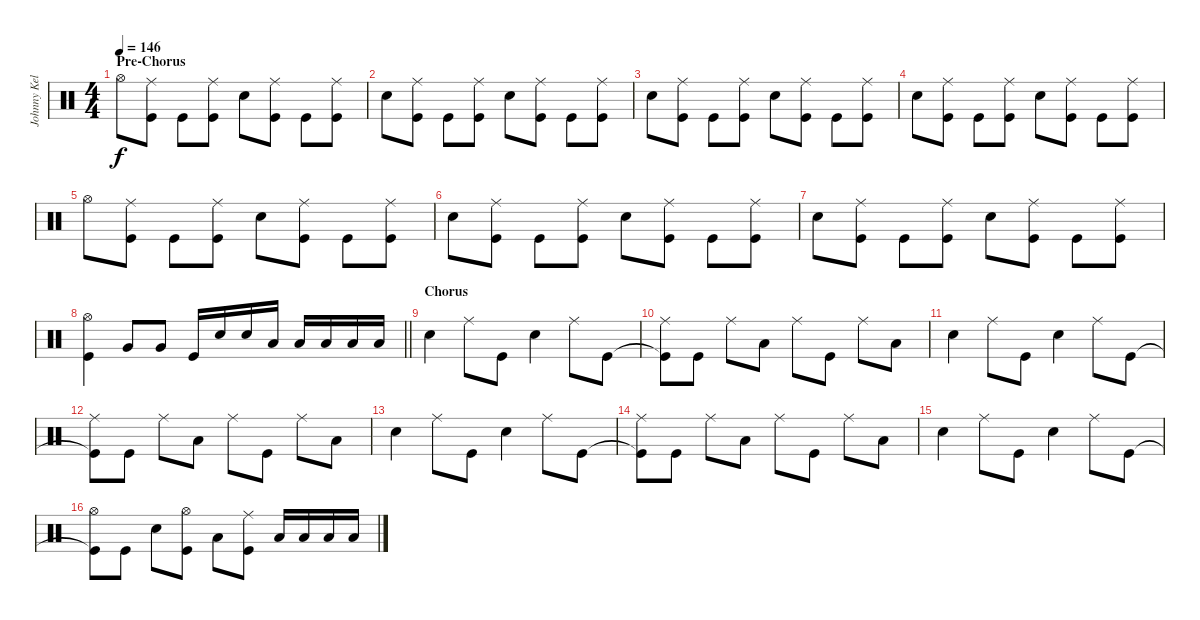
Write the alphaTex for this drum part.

\track ("Johnny Kelly" "Johnny Kel") {instrument percussion}
\staff {score}
\articulation defaults
\ts (4 4)
\section ("" "Pre-Chorus")
\tempo 146
\clef neutral
\ks c "Hi-Hat (open)".8{dy f}
("Kick (hit)" "Ride (middle)").8 "Kick (hit)".8 ("Kick (hit)" "Ride (middle)").8 "Snare (hit) 2".8 ("Kick (hit)" "Ride (middle)").8 "Kick (hit)".8 ("Kick (hit)" "Ride (middle)").8 |
"Snare (hit) 2".8 ("Kick (hit)" "Ride (middle)").8 "Kick (hit)".8 ("Kick (hit)" "Ride (middle)").8 "Snare (hit) 2".8 ("Kick (hit)" "Ride (middle)").8 "Kick (hit)".8 ("Kick (hit)" "Ride (middle)").8 |
"Snare (hit) 2".8 ("Kick (hit)" "Ride (middle)").8 "Kick (hit)".8 ("Kick (hit)" "Ride (middle)").8 "Snare (hit) 2".8 ("Kick (hit)" "Ride (middle)").8 "Kick (hit)".8 ("Kick (hit)" "Ride (middle)").8 |
"Snare (hit) 2".8 ("Kick (hit)" "Ride (middle)").8 "Kick (hit)".8 ("Kick (hit)" "Ride (middle)").8 "Snare (hit) 2".8 ("Kick (hit)" "Ride (middle)").8 "Kick (hit)".8 ("Kick (hit)" "Ride (middle)").8 |
"Hi-Hat (open)".8 ("Kick (hit)" "Ride (middle)").8 "Kick (hit)".8 ("Kick (hit)" "Ride (middle)").8 "Snare (hit) 2".8 ("Kick (hit)" "Ride (middle)").8 "Kick (hit)".8 ("Kick (hit)" "Ride (middle)").8 |
"Snare (hit) 2".8 ("Kick (hit)" "Ride (middle)").8 "Kick (hit)".8 ("Kick (hit)" "Ride (middle)").8 "Snare (hit) 2".8 ("Kick (hit)" "Ride (middle)").8 "Kick (hit)".8 ("Kick (hit)" "Ride (middle)").8 |
"Snare (hit) 2".8 ("Kick (hit)" "Ride (middle)").8 "Kick (hit)".8 ("Kick (hit)" "Ride (middle)").8 "Snare (hit) 2".8 ("Kick (hit)" "Ride (middle)").8 "Kick (hit)".8 ("Kick (hit)" "Ride (middle)").8 |
\barLineRight lightlight
("Kick (hit)" "Hi-Hat (open)").4 "Very Low Tom (hit)".8 "Very Low Tom (hit)".8 "Kick (hit)".16 "Snare (hit) 2".16 "Snare (hit) 2".16 "Low Tom (hit)".16 "Low Tom (hit)".16 "Low Tom (hit)".16 "Low Tom (hit)".16 "Low Tom (hit)".16 |
\section ("" "Chorus")
"Snare (hit) 2".4 "Ride (middle)".8 "Kick (hit)".8 "Snare (hit) 2".4 "Ride (middle)".8 "Kick (hit)".8 |
("Kick (hit)"{t} "Ride (middle)").8 "Kick (hit)".8 "Ride (middle)".8 "Low Tom (hit)".8 "Ride (middle)".8 "Kick (hit)".8 "Ride (middle)".8 "Low Tom (hit)".8 |
"Snare (hit) 2".4 "Ride (middle)".8 "Kick (hit)".8 "Snare (hit) 2".4 "Ride (middle)".8 "Kick (hit)".8 |
("Kick (hit)"{t} "Ride (middle)").8 "Kick (hit)".8 "Ride (middle)".8 "Low Tom (hit)".8 "Ride (middle)".8 "Kick (hit)".8 "Ride (middle)".8 "Low Tom (hit)".8 |
"Snare (hit) 2".4 "Ride (middle)".8 "Kick (hit)".8 "Snare (hit) 2".4 "Ride (middle)".8 "Kick (hit)".8 |
("Kick (hit)"{t} "Ride (middle)").8 "Kick (hit)".8 "Ride (middle)".8 "Low Tom (hit)".8 "Ride (middle)".8 "Kick (hit)".8 "Ride (middle)".8 "Low Tom (hit)".8 |
"Snare (hit) 2".4 "Ride (middle)".8 "Kick (hit)".8 "Snare (hit) 2".4 "Ride (middle)".8 "Kick (hit)".8 |
("Kick (hit)"{t} "Hi-Hat (open)").8 "Kick (hit)".8 "Snare (hit) 2".8 ("Kick (hit)" "Hi-Hat (open)").8 "Low Tom (hit)".8 ("Kick (hit)" "Ride (middle)").8 "Low Tom (hit)".16 "Low Tom (hit)".16 "Low Tom (hit)".16 "Low Tom (hit)".16
